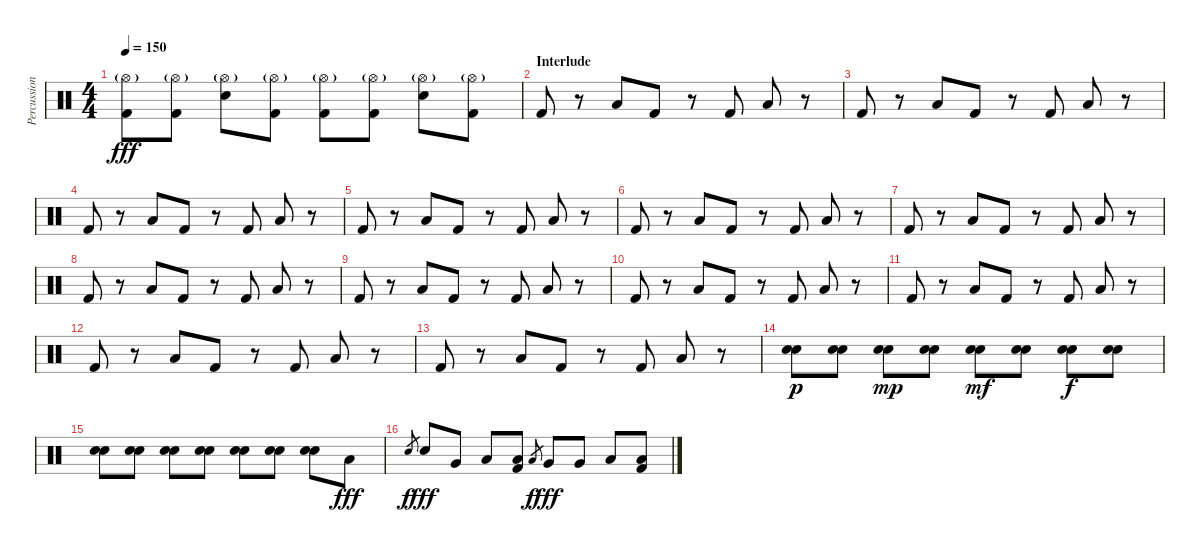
\track ("Percussion" "Percussion") {instrument percussion}
\staff {score}
\articulation defaults
\ts (4 4)
\tempo 150
\clef neutral
\ks c
("Hi-Hat (open)"{g} "Kick (hit) 2").8{dy fff} ("Hi-Hat (open)"{g} "Kick (hit) 2").8 ("Hi-Hat (open)"{g} "Snare (hit) 2").8 ("Hi-Hat (open)"{g} "Kick (hit) 2").8 ("Hi-Hat (open)"{g} "Kick (hit) 2").8 ("Hi-Hat (open)"{g} "Kick (hit) 2").8 ("Hi-Hat (open)"{g} "Snare (hit) 2").8 ("Hi-Hat (open)"{g} "Kick (hit) 2").8 |
\section ("" "Interlude")
"Kick (hit) 2".8 r.8 "Low Floor Tom (hit)".8 "Kick (hit) 2".8 r.8 "Kick (hit) 2".8 "Low Floor Tom (hit)".8 r.8 |
"Kick (hit) 2".8 r.8 "Low Floor Tom (hit)".8 "Kick (hit) 2".8 r.8 "Kick (hit) 2".8 "Low Floor Tom (hit)".8 r.8 |
"Kick (hit) 2".8 r.8 "Low Floor Tom (hit)".8 "Kick (hit) 2".8 r.8 "Kick (hit) 2".8 "Low Floor Tom (hit)".8 r.8 |
"Kick (hit) 2".8 r.8 "Low Floor Tom (hit)".8 "Kick (hit) 2".8 r.8 "Kick (hit) 2".8 "Low Floor Tom (hit)".8 r.8 |
"Kick (hit) 2".8 r.8 "Low Floor Tom (hit)".8 "Kick (hit) 2".8 r.8 "Kick (hit) 2".8 "Low Floor Tom (hit)".8 r.8 |
"Kick (hit) 2".8 r.8 "Low Floor Tom (hit)".8 "Kick (hit) 2".8 r.8 "Kick (hit) 2".8 "Low Floor Tom (hit)".8 r.8 |
"Kick (hit) 2".8 r.8 "Low Floor Tom (hit)".8 "Kick (hit) 2".8 r.8 "Kick (hit) 2".8 "Low Floor Tom (hit)".8 r.8 |
"Kick (hit) 2".8 r.8 "Low Floor Tom (hit)".8 "Kick (hit) 2".8 r.8 "Kick (hit) 2".8 "Low Floor Tom (hit)".8 r.8 |
"Kick (hit) 2".8 r.8 "Low Floor Tom (hit)".8 "Kick (hit) 2".8 r.8 "Kick (hit) 2".8 "Low Floor Tom (hit)".8 r.8 |
"Kick (hit) 2".8 r.8 "Low Floor Tom (hit)".8 "Kick (hit) 2".8 r.8 "Kick (hit) 2".8 "Low Floor Tom (hit)".8 r.8 |
"Kick (hit) 2".8 r.8 "Low Floor Tom (hit)".8 "Kick (hit) 2".8 r.8 "Kick (hit) 2".8 "Low Floor Tom (hit)".8 r.8 |
"Kick (hit) 2".8 r.8 "Low Floor Tom (hit)".8 "Kick (hit) 2".8 r.8 "Kick (hit) 2".8 "Low Floor Tom (hit)".8 r.8 |
("Electric Snare (hit)" "Electric Snare (hit)").8{dy p} ("Electric Snare (hit)" "Electric Snare (hit)").8 ("Electric Snare (hit)" "Electric Snare (hit)").8{dy mp} ("Electric Snare (hit)" "Electric Snare (hit)").8 ("Electric Snare (hit)" "Electric Snare (hit)").8{dy mf} ("Electric Snare (hit)" "Electric Snare (hit)").8 ("Electric Snare (hit)" "Electric Snare (hit)").8{dy f} ("Electric Snare (hit)" "Electric Snare (hit)").8 |
("Electric Snare (hit)" "Electric Snare (hit)").8 ("Electric Snare (hit)" "Electric Snare (hit)").8 ("Electric Snare (hit)" "Electric Snare (hit)").8 ("Electric Snare (hit)" "Electric Snare (hit)").8 ("Electric Snare (hit)" "Electric Snare (hit)").8 ("Electric Snare (hit)" "Electric Snare (hit)").8 ("Electric Snare (hit)" "Electric Snare (hit)").8 "Low Tom (hit)".8{dy fff} |
"Electric Snare (hit)".8{gr dy f} "Electric Snare (hit)".8{dy fff} "Very Low Tom (hit)".8 "Low Floor Tom (hit)".8 ("Low Floor Tom (hit)" "Kick (hit) 2").8 "Low Floor Tom (hit)".8{gr dy f} "Very Low Tom (hit)".8{dy fff} "Very Low Tom (hit)".8 "Low Floor Tom (hit)".8 ("Low Floor Tom (hit)" "Kick (hit) 2").8
